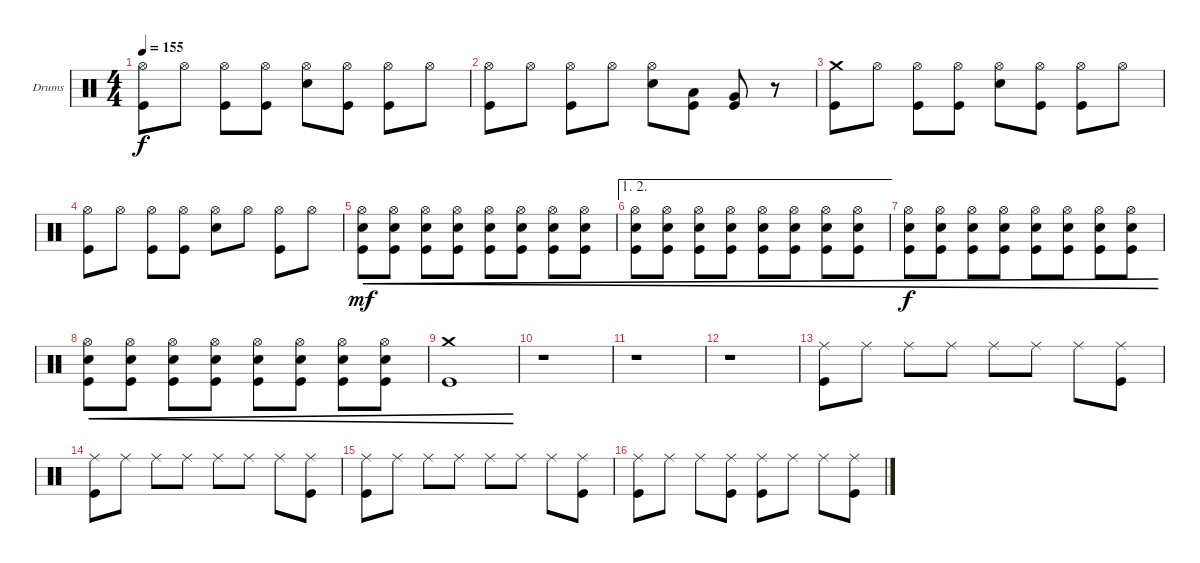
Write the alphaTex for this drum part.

\bracketExtendMode groupsimilarinstruments
\firstSystemTrackNameOrientation horizontal
\otherSystemsTrackNameOrientation horizontal
\track ("Drumkit" "Drums") {instrument percussion}
\staff {score}
\articulation defaults
\ts (4 4)
\tempo 155
\clef neutral
\ks c
("Hi-Hat (open)" "Kick (hit)").8{dy f} "Hi-Hat (open)".8 ("Hi-Hat (open)" "Kick (hit)").8 ("Hi-Hat (open)" "Kick (hit)").8 ("Hi-Hat (open)" "Snare (hit) 2").8 ("Kick (hit)" "Hi-Hat (open)").8 ("Hi-Hat (open)" "Kick (hit)").8 "Hi-Hat (open)".8 |
("Hi-Hat (open)" "Kick (hit)").8 "Hi-Hat (open)".8 ("Hi-Hat (open)" "Kick (hit)").8 "Hi-Hat (open)".8 ("Snare (hit) 2" "Hi-Hat (open)").8 ("Low Tom (hit)" "Kick (hit)").8 ("Very Low Tom (hit)" "Kick (hit)").8 r.8 |
("Kick (hit)" "Crash medium (hit)").8 "Hi-Hat (open)".8 ("Hi-Hat (open)" "Kick (hit)").8 ("Hi-Hat (open)" "Kick (hit)").8 ("Hi-Hat (open)" "Snare (hit) 2").8 ("Hi-Hat (open)" "Kick (hit)").8 ("Hi-Hat (open)" "Kick (hit)").8 "Hi-Hat (open)".8 |
("Hi-Hat (open)" "Kick (hit)").8 "Hi-Hat (open)".8 ("Hi-Hat (open)" "Kick (hit)").8 ("Hi-Hat (open)" "Kick (hit)").8 ("Hi-Hat (open)" "Snare (hit) 2").8 "Hi-Hat (open)".8 ("Hi-Hat (open)" "Kick (hit)").8 "Hi-Hat (open)".8 |
("Hi-Hat (open)" "Snare (hit) 2" "Kick (hit)").8{cre dy mf} ("Hi-Hat (open)" "Snare (hit) 2" "Kick (hit)").8{cre} ("Hi-Hat (open)" "Snare (hit) 2" "Kick (hit)").8{cre} ("Hi-Hat (open)" "Snare (hit) 2" "Kick (hit)").8{cre} ("Hi-Hat (open)" "Snare (hit) 2" "Kick (hit)").8{cre} ("Hi-Hat (open)" "Snare (hit) 2" "Kick (hit)").8{cre} ("Hi-Hat (open)" "Snare (hit) 2" "Kick (hit)").8{cre} ("Hi-Hat (open)" "Snare (hit) 2" "Kick (hit)").8{cre} |
\ae (1 2)
("Hi-Hat (open)" "Snare (hit) 2" "Kick (hit)").8{cre} ("Hi-Hat (open)" "Snare (hit) 2" "Kick (hit)").8{cre} ("Hi-Hat (open)" "Snare (hit) 2" "Kick (hit)").8{cre} ("Hi-Hat (open)" "Snare (hit) 2" "Kick (hit)").8{cre} ("Hi-Hat (open)" "Snare (hit) 2" "Kick (hit)").8{cre} ("Hi-Hat (open)" "Snare (hit) 2" "Kick (hit)").8{cre} ("Hi-Hat (open)" "Snare (hit) 2" "Kick (hit)").8{cre} ("Hi-Hat (open)" "Snare (hit) 2" "Kick (hit)").8{cre} |
("Hi-Hat (open)" "Snare (hit) 2" "Kick (hit)").8{cre dy f} ("Hi-Hat (open)" "Snare (hit) 2" "Kick (hit)").8{cre} ("Hi-Hat (open)" "Snare (hit) 2" "Kick (hit)").8{cre} ("Hi-Hat (open)" "Snare (hit) 2" "Kick (hit)").8{cre} ("Hi-Hat (open)" "Snare (hit) 2" "Kick (hit)").8{cre} ("Hi-Hat (open)" "Snare (hit) 2" "Kick (hit)").8{cre} ("Hi-Hat (open)" "Snare (hit) 2" "Kick (hit)").8{cre} ("Hi-Hat (open)" "Snare (hit) 2" "Kick (hit)").8{cre} |
("Hi-Hat (open)" "Snare (hit) 2" "Kick (hit)").8{cre} ("Hi-Hat (open)" "Snare (hit) 2" "Kick (hit)").8{cre} ("Hi-Hat (open)" "Snare (hit) 2" "Kick (hit)").8{cre} ("Hi-Hat (open)" "Snare (hit) 2" "Kick (hit)").8{cre} ("Hi-Hat (open)" "Snare (hit) 2" "Kick (hit)").8{cre} ("Hi-Hat (open)" "Snare (hit) 2" "Kick (hit)").8{cre} ("Hi-Hat (open)" "Snare (hit) 2" "Kick (hit)").8{cre} ("Hi-Hat (open)" "Snare (hit) 2" "Kick (hit)").8{cre} |
("Crash medium (hit)" "Kick (hit)").1{cre} |
r.1 |
r.1 |
r.1 |
("Ride (middle)" "Kick (hit)").8 "Ride (middle)".8 "Ride (middle)".8 "Ride (middle)".8 "Ride (middle)".8 "Ride (middle)".8 "Ride (middle)".8 ("Ride (middle)" "Kick (hit)").8 |
("Ride (middle)" "Kick (hit)").8 "Ride (middle)".8 "Ride (middle)".8 "Ride (middle)".8 "Ride (middle)".8 "Ride (middle)".8 "Ride (middle)".8 ("Ride (middle)" "Kick (hit)").8 |
("Ride (middle)" "Kick (hit)").8 "Ride (middle)".8 "Ride (middle)".8 "Ride (middle)".8 "Ride (middle)".8 "Ride (middle)".8 "Ride (middle)".8 ("Ride (middle)" "Kick (hit)").8 |
("Ride (middle)" "Kick (hit)").8 "Ride (middle)".8 "Ride (middle)".8 ("Ride (middle)" "Kick (hit)").8 ("Ride (middle)" "Kick (hit)").8 "Ride (middle)".8 "Ride (middle)".8 ("Ride (middle)" "Kick (hit)").8
